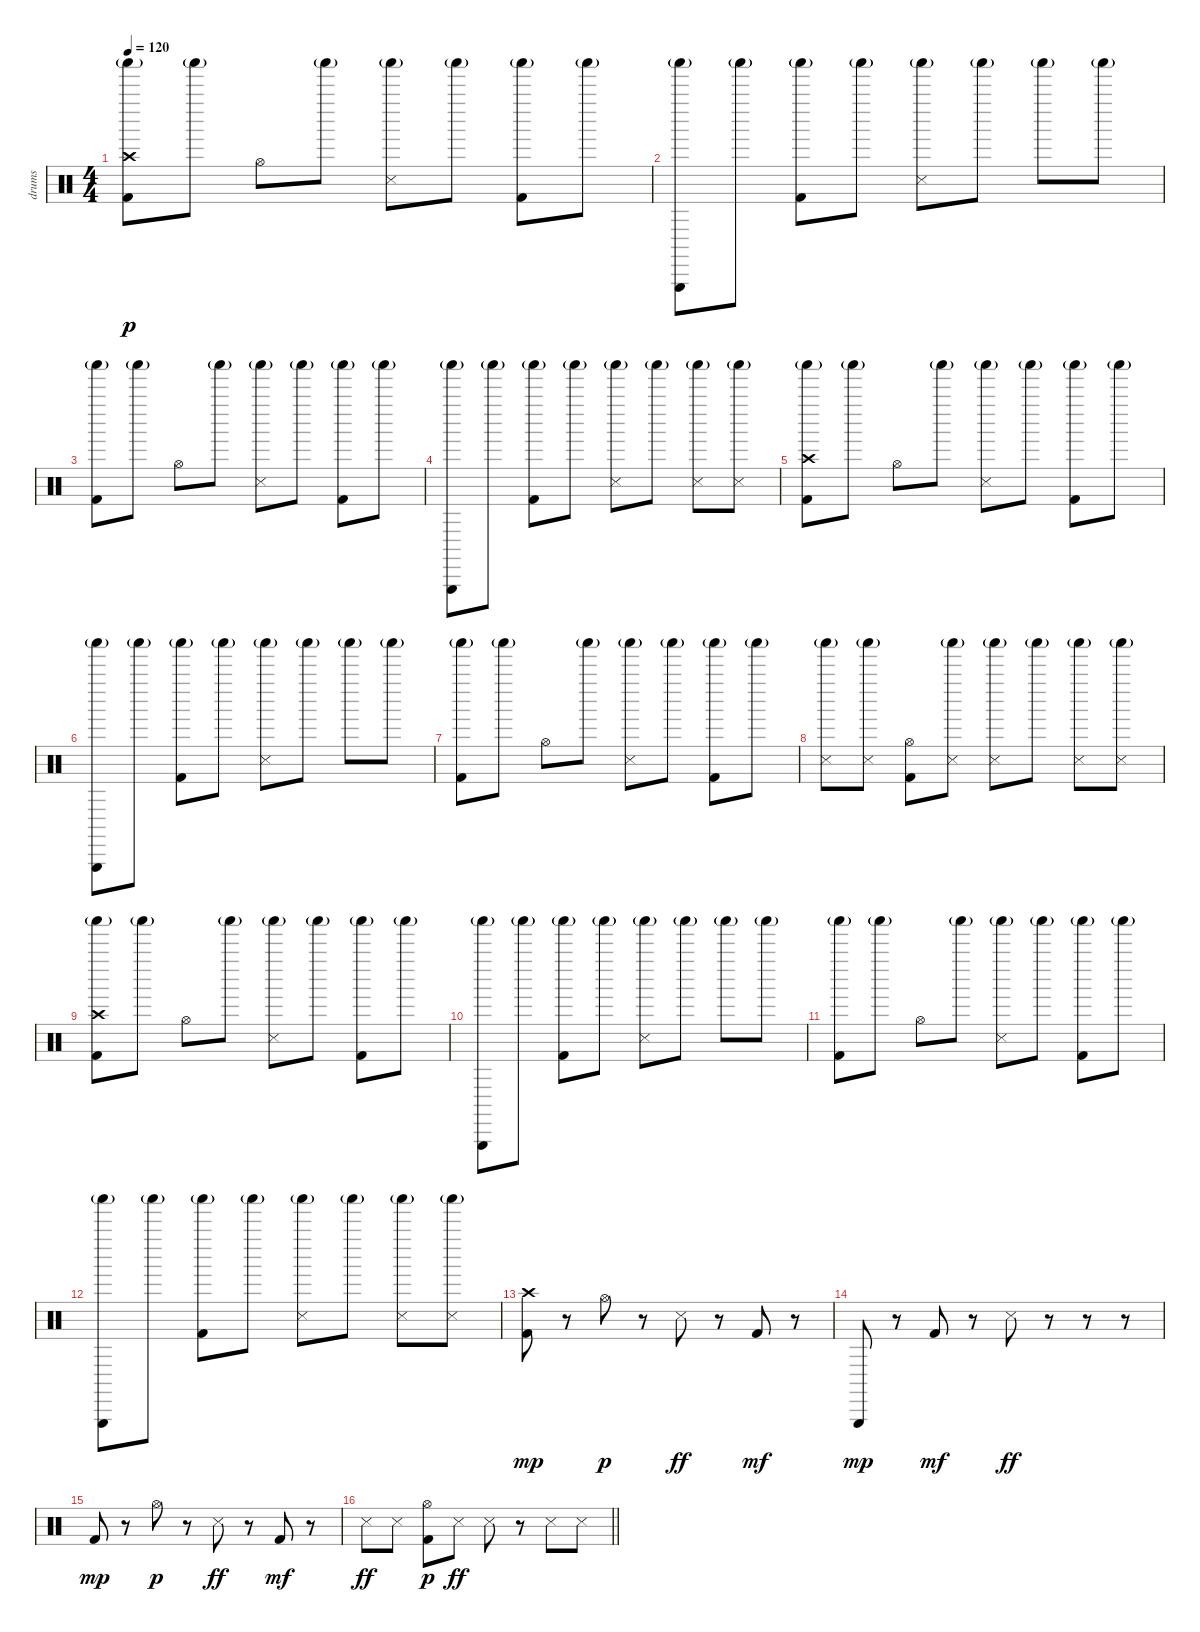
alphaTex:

\track ("drums" "drums") {instrument percussion}
\staff {score}
\articulation defaults
\ts (4 4)
\tempo 120
\clef neutral
\ks c
("Kick (hit) 2" "Crash high (hit)" "Shaker (hit)"{g}).8{dy p} "Shaker (hit)"{g}.8 "Hi-Hat (open)".8 "Shaker (hit)"{g}.8 ("Snare (side stick) 3" "Shaker (hit)"{g}).8 "Shaker (hit)"{g}.8 ("Kick (hit) 2" "Shaker (hit)"{g}).8 "Shaker (hit)"{g}.8 |
("Triangle (hit)" "Shaker (hit)"{g}).8 "Shaker (hit)"{g}.8 ("Kick (hit) 2" "Shaker (hit)"{g}).8 "Shaker (hit)"{g}.8 ("Snare (side stick) 3" "Shaker (hit)"{g}).8 "Shaker (hit)"{g}.8 "Shaker (hit)"{g}.8 "Shaker (hit)"{g}.8 |
("Kick (hit) 2" "Shaker (hit)"{g}).8 "Shaker (hit)"{g}.8 "Hi-Hat (open)".8 "Shaker (hit)"{g}.8 ("Snare (side stick) 3" "Shaker (hit)"{g}).8 "Shaker (hit)"{g}.8 ("Kick (hit) 2" "Shaker (hit)"{g}).8 "Shaker (hit)"{g}.8 |
("Triangle (hit)" "Shaker (hit)"{g}).8 "Shaker (hit)"{g}.8 ("Kick (hit) 2" "Shaker (hit)"{g}).8 "Shaker (hit)"{g}.8 ("Snare (side stick) 3" "Shaker (hit)"{g}).8 "Shaker (hit)"{g}.8 ("Snare (side stick) 3" "Shaker (hit)"{g}).8 ("Snare (side stick) 3" "Shaker (hit)"{g}).8 |
("Kick (hit) 2" "Crash high (hit)" "Shaker (hit)"{g}).8 "Shaker (hit)"{g}.8 "Hi-Hat (open)".8 "Shaker (hit)"{g}.8 ("Snare (side stick) 3" "Shaker (hit)"{g}).8 "Shaker (hit)"{g}.8 ("Kick (hit) 2" "Shaker (hit)"{g}).8 "Shaker (hit)"{g}.8 |
("Triangle (hit)" "Shaker (hit)"{g}).8 "Shaker (hit)"{g}.8 ("Kick (hit) 2" "Shaker (hit)"{g}).8 "Shaker (hit)"{g}.8 ("Snare (side stick) 3" "Shaker (hit)"{g}).8 "Shaker (hit)"{g}.8 "Shaker (hit)"{g}.8 "Shaker (hit)"{g}.8 |
("Kick (hit) 2" "Shaker (hit)"{g}).8 "Shaker (hit)"{g}.8 "Hi-Hat (open)".8 "Shaker (hit)"{g}.8 ("Snare (side stick) 3" "Shaker (hit)"{g}).8 "Shaker (hit)"{g}.8 ("Kick (hit) 2" "Shaker (hit)"{g}).8 "Shaker (hit)"{g}.8 |
("Snare (side stick) 3" "Shaker (hit)"{g}).8 ("Snare (side stick) 3" "Shaker (hit)"{g}).8 ("Kick (hit) 2" "Hi-Hat (open)").8 ("Snare (side stick) 3" "Shaker (hit)"{g}).8 ("Snare (side stick) 3" "Shaker (hit)"{g}).8 "Shaker (hit)"{g}.8 ("Snare (side stick) 3" "Shaker (hit)"{g}).8 ("Snare (side stick) 3" "Shaker (hit)"{g}).8 |
("Kick (hit) 2" "Crash high (hit)" "Shaker (hit)"{g}).8 "Shaker (hit)"{g}.8 "Hi-Hat (open)".8 "Shaker (hit)"{g}.8 ("Snare (side stick) 3" "Shaker (hit)"{g}).8 "Shaker (hit)"{g}.8 ("Kick (hit) 2" "Shaker (hit)"{g}).8 "Shaker (hit)"{g}.8 |
("Triangle (hit)" "Shaker (hit)"{g}).8 "Shaker (hit)"{g}.8 ("Kick (hit) 2" "Shaker (hit)"{g}).8 "Shaker (hit)"{g}.8 ("Snare (side stick) 3" "Shaker (hit)"{g}).8 "Shaker (hit)"{g}.8 "Shaker (hit)"{g}.8 "Shaker (hit)"{g}.8 |
("Kick (hit) 2" "Shaker (hit)"{g}).8 "Shaker (hit)"{g}.8 "Hi-Hat (open)".8 "Shaker (hit)"{g}.8 ("Snare (side stick) 3" "Shaker (hit)"{g}).8 "Shaker (hit)"{g}.8 ("Kick (hit) 2" "Shaker (hit)"{g}).8 "Shaker (hit)"{g}.8 |
("Triangle (hit)" "Shaker (hit)"{g}).8 "Shaker (hit)"{g}.8 ("Kick (hit) 2" "Shaker (hit)"{g}).8 "Shaker (hit)"{g}.8 ("Snare (side stick) 3" "Shaker (hit)"{g}).8 "Shaker (hit)"{g}.8 ("Snare (side stick) 3" "Shaker (hit)"{g}).8 ("Snare (side stick) 3" "Shaker (hit)"{g}).8 |
("Kick (hit) 2" "Crash high (hit)").8{dy mp} r.8 "Hi-Hat (open)".8{dy p} r.8 "Snare (side stick) 3".8{dy ff} r.8 "Kick (hit) 2".8{dy mf} r.8 |
"Triangle (hit)".8{dy mp} r.8 "Kick (hit) 2".8{dy mf} r.8 "Snare (side stick) 3".8{dy ff} r.8 r.8 r.8 |
"Kick (hit) 2".8{dy mp} r.8 "Hi-Hat (open)".8{dy p} r.8 "Snare (side stick) 3".8{dy ff} r.8 "Kick (hit) 2".8{dy mf} r.8 |
\barLineRight lightlight "Snare (side stick) 3".8{dy ff} "Snare (side stick) 3".8
("Kick (hit) 2" "Hi-Hat (open)").8{dy p} "Snare (side stick) 3".8{dy ff} "Snare (side stick) 3".8 r.8 "Snare (side stick) 3".8 "Snare (side stick) 3".8
